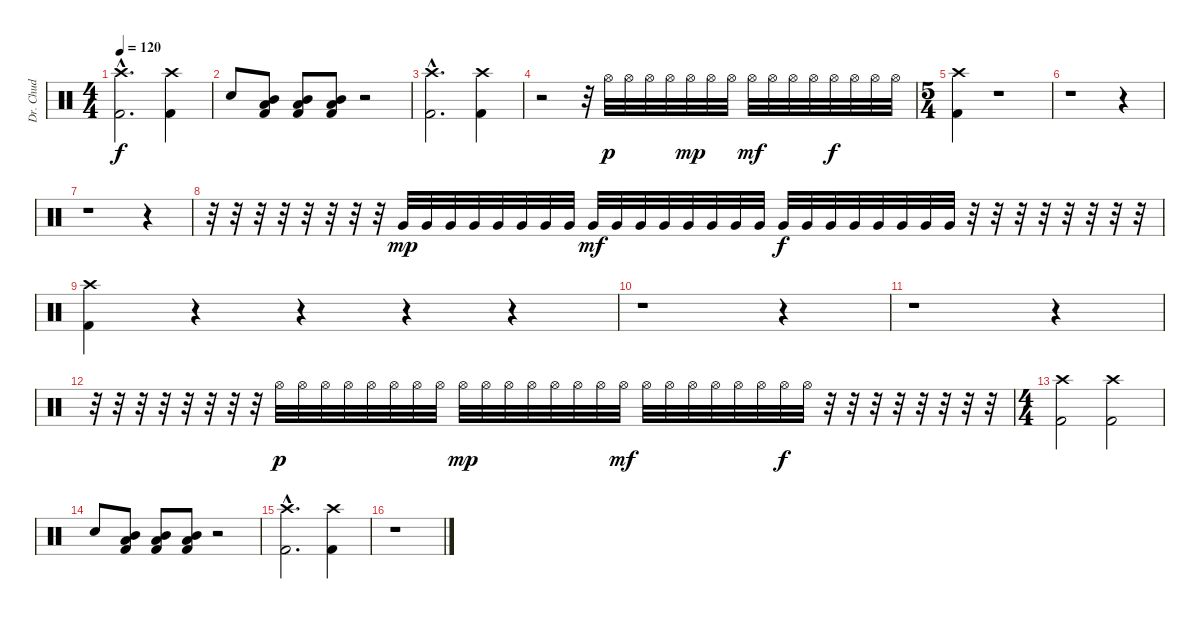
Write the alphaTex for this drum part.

\track ("Dr. Chud" "Dr. Chud") {instrument percussion}
\staff {score}
\articulation defaults
\ts (4 4)
\tempo 120
\clef neutral
\ks c
("Crash high (hit)"{hac} "Kick (hit) 2"{hac}).2{d dy f} ("Crash high (hit)" "Kick (hit) 2").4 |
"Electric Snare (hit)".8 ("Mid Tom (hit)" "Low Tom (hit)" "Kick (hit) 2").8 ("Mid Tom (hit)" "Low Tom (hit)" "Kick (hit) 2").8 ("Mid Tom (hit)" "Low Tom (hit)" "Kick (hit) 2").8 r.2 |
("Crash high (hit)"{hac} "Kick (hit) 2"{hac}).2{d} ("Crash high (hit)" "Kick (hit) 2").4 |
r.2 r.32 "Hi-Hat (open)".32{dy p} "Hi-Hat (open)".32 "Hi-Hat (open)".32 "Hi-Hat (open)".32 "Hi-Hat (open)".32{dy mp} "Hi-Hat (open)".32 "Hi-Hat (open)".32 "Hi-Hat (open)".32{dy mf} "Hi-Hat (open)".32 "Hi-Hat (open)".32 "Hi-Hat (open)".32 "Hi-Hat (open)".32{dy f} "Hi-Hat (open)".32 "Hi-Hat (open)".32 "Hi-Hat (open)".32 |
\ts (5 4)
("Crash high (hit)" "Kick (hit) 2").4 r.1 |
r.1 r.4 |
r.1 r.4 |
r.32 r.32 r.32 r.32 r.32 r.32 r.32 r.32 "Very Low Tom (hit)".32{dy mp} "Very Low Tom (hit)".32 "Very Low Tom (hit)".32 "Very Low Tom (hit)".32 "Very Low Tom (hit)".32 "Very Low Tom (hit)".32 "Very Low Tom (hit)".32 "Very Low Tom (hit)".32 "Very Low Tom (hit)".32{dy mf} "Very Low Tom (hit)".32 "Very Low Tom (hit)".32 "Very Low Tom (hit)".32 "Very Low Tom (hit)".32 "Very Low Tom (hit)".32 "Very Low Tom (hit)".32 "Very Low Tom (hit)".32 "Very Low Tom (hit)".32{dy f} "Very Low Tom (hit)".32 "Very Low Tom (hit)".32 "Very Low Tom (hit)".32 "Very Low Tom (hit)".32 "Very Low Tom (hit)".32 "Very Low Tom (hit)".32 "Very Low Tom (hit)".32 r.32 r.32 r.32 r.32 r.32 r.32 r.32 r.32 |
("Crash high (hit)" "Kick (hit) 2").4 r.4 r.4 r.4 r.4 |
r.1 r.4 |
r.1 r.4 |
r.32 r.32 r.32 r.32 r.32 r.32 r.32 r.32 "Hi-Hat (open)".32{dy p} "Hi-Hat (open)".32 "Hi-Hat (open)".32 "Hi-Hat (open)".32 "Hi-Hat (open)".32 "Hi-Hat (open)".32 "Hi-Hat (open)".32 "Hi-Hat (open)".32 "Hi-Hat (open)".32{dy mp} "Hi-Hat (open)".32 "Hi-Hat (open)".32 "Hi-Hat (open)".32 "Hi-Hat (open)".32 "Hi-Hat (open)".32 "Hi-Hat (open)".32 "Hi-Hat (open)".32{dy mf} "Hi-Hat (open)".32 "Hi-Hat (open)".32 "Hi-Hat (open)".32 "Hi-Hat (open)".32 "Hi-Hat (open)".32 "Hi-Hat (open)".32 "Hi-Hat (open)".32{dy f} "Hi-Hat (open)".32 r.32 r.32 r.32 r.32 r.32 r.32 r.32 r.32 |
\ts (4 4)
("Crash high (hit)" "Kick (hit) 2").2 ("Crash high (hit)" "Kick (hit) 2").2 |
"Electric Snare (hit)".8 ("Mid Tom (hit)" "Low Tom (hit)" "Kick (hit) 2").8 ("Mid Tom (hit)" "Low Tom (hit)" "Kick (hit) 2").8 ("Mid Tom (hit)" "Low Tom (hit)" "Kick (hit) 2").8 r.2 |
("Crash high (hit)"{hac} "Kick (hit) 2"{hac}).2{d} ("Crash high (hit)" "Kick (hit) 2").4 |
r.1
